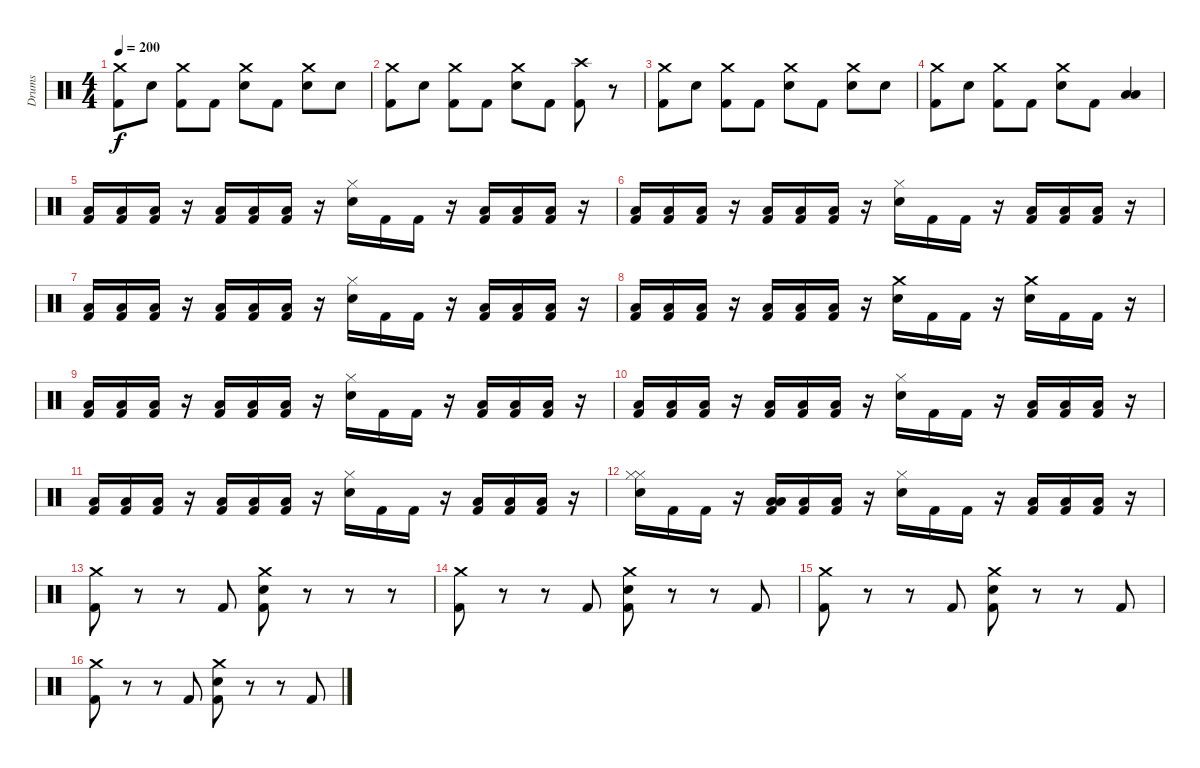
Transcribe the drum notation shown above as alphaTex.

\track ("Drums" "Drums") {instrument percussion}
\staff {score}
\articulation defaults
\ts (4 4)
\tempo 200
\clef neutral
\ks c
("Crash medium (hit)" "Kick (hit) 2").8{dy f} "Electric Snare (hit)".8 ("Crash medium (hit)" "Kick (hit) 2").8 "Kick (hit) 2".8 ("Crash medium (hit)" "Electric Snare (hit)").8 "Kick (hit) 2".8 ("Crash medium (hit)" "Electric Snare (hit)").8 "Electric Snare (hit)".8 |
("Crash medium (hit)" "Kick (hit) 2").8 "Electric Snare (hit)".8 ("Crash medium (hit)" "Kick (hit) 2").8 "Kick (hit) 2".8 ("Crash medium (hit)" "Electric Snare (hit)").8 "Kick (hit) 2".8 ("Crash high (hit)" "Kick (hit) 2").8 r.8 |
("Crash medium (hit)" "Kick (hit) 2").8 "Electric Snare (hit)".8 ("Crash medium (hit)" "Kick (hit) 2").8 "Kick (hit) 2".8 ("Crash medium (hit)" "Electric Snare (hit)").8 "Kick (hit) 2".8 ("Crash medium (hit)" "Electric Snare (hit)").8 "Electric Snare (hit)".8 |
("Crash medium (hit)" "Kick (hit) 2").8 "Electric Snare (hit)".8 ("Crash medium (hit)" "Kick (hit) 2").8 "Kick (hit) 2".8 ("Crash medium (hit)" "Electric Snare (hit)").8 "Kick (hit) 2".8 ("Low Floor Tom (hit)" "Low Tom (hit)").4 |
("Low Tom (hit)" "Kick (hit) 2").16 ("Low Tom (hit)" "Kick (hit) 2").16 ("Low Tom (hit)" "Kick (hit) 2").16 r.16 ("Low Floor Tom (hit)" "Kick (hit) 2").16 ("Low Floor Tom (hit)" "Kick (hit) 2").16 ("Low Floor Tom (hit)" "Kick (hit) 2").16 r.16 ("Hi-Hat (closed)" "Electric Snare (hit)").16 "Kick (hit) 2".16 "Kick (hit) 2".16 r.16 ("Low Floor Tom (hit)" "Kick (hit) 2").16 ("Low Floor Tom (hit)" "Kick (hit) 2").16 ("Low Floor Tom (hit)" "Kick (hit) 2").16 r.16 |
("Low Tom (hit)" "Kick (hit) 2").16 ("Low Tom (hit)" "Kick (hit) 2").16 ("Low Tom (hit)" "Kick (hit) 2").16 r.16 ("Low Floor Tom (hit)" "Kick (hit) 2").16 ("Low Floor Tom (hit)" "Kick (hit) 2").16 ("Low Floor Tom (hit)" "Kick (hit) 2").16 r.16 ("Hi-Hat (closed)" "Electric Snare (hit)").16 "Kick (hit) 2".16 "Kick (hit) 2".16 r.16 ("Low Floor Tom (hit)" "Kick (hit) 2").16 ("Low Floor Tom (hit)" "Kick (hit) 2").16 ("Low Floor Tom (hit)" "Kick (hit) 2").16 r.16 |
("Low Tom (hit)" "Kick (hit) 2").16 ("Low Tom (hit)" "Kick (hit) 2").16 ("Low Tom (hit)" "Kick (hit) 2").16 r.16 ("Low Floor Tom (hit)" "Kick (hit) 2").16 ("Low Floor Tom (hit)" "Kick (hit) 2").16 ("Low Floor Tom (hit)" "Kick (hit) 2").16 r.16 ("Hi-Hat (closed)" "Electric Snare (hit)").16 "Kick (hit) 2".16 "Kick (hit) 2".16 r.16 ("Low Floor Tom (hit)" "Kick (hit) 2").16 ("Low Floor Tom (hit)" "Kick (hit) 2").16 ("Low Floor Tom (hit)" "Kick (hit) 2").16 r.16 |
("Low Tom (hit)" "Kick (hit) 2").16 ("Low Tom (hit)" "Kick (hit) 2").16 ("Low Tom (hit)" "Kick (hit) 2").16 r.16 ("Low Floor Tom (hit)" "Kick (hit) 2").16 ("Low Floor Tom (hit)" "Kick (hit) 2").16 ("Low Floor Tom (hit)" "Kick (hit) 2").16 r.16 ("Crash medium (hit)" "Electric Snare (hit)").16 "Kick (hit) 2".16 "Kick (hit) 2".16 r.16 ("Crash medium (hit)" "Electric Snare (hit)").16 "Kick (hit) 2".16 "Kick (hit) 2".16 r.16 |
("Low Tom (hit)" "Kick (hit) 2").16 ("Low Tom (hit)" "Kick (hit) 2").16 ("Low Tom (hit)" "Kick (hit) 2").16 r.16 ("Low Floor Tom (hit)" "Kick (hit) 2").16 ("Low Floor Tom (hit)" "Kick (hit) 2").16 ("Low Floor Tom (hit)" "Kick (hit) 2").16 r.16 ("Hi-Hat (closed)" "Electric Snare (hit)").16 "Kick (hit) 2".16 "Kick (hit) 2".16 r.16 ("Low Floor Tom (hit)" "Kick (hit) 2").16 ("Low Floor Tom (hit)" "Kick (hit) 2").16 ("Low Floor Tom (hit)" "Kick (hit) 2").16 r.16 |
("Low Tom (hit)" "Kick (hit) 2").16 ("Low Tom (hit)" "Kick (hit) 2").16 ("Low Tom (hit)" "Kick (hit) 2").16 r.16 ("Low Floor Tom (hit)" "Kick (hit) 2").16 ("Low Floor Tom (hit)" "Kick (hit) 2").16 ("Low Floor Tom (hit)" "Kick (hit) 2").16 r.16 ("Hi-Hat (closed)" "Electric Snare (hit)").16 "Kick (hit) 2".16 "Kick (hit) 2".16 r.16 ("Low Floor Tom (hit)" "Kick (hit) 2").16 ("Low Floor Tom (hit)" "Kick (hit) 2").16 ("Low Floor Tom (hit)" "Kick (hit) 2").16 r.16 |
("Low Tom (hit)" "Kick (hit) 2").16 ("Low Tom (hit)" "Kick (hit) 2").16 ("Low Tom (hit)" "Kick (hit) 2").16 r.16 ("Low Floor Tom (hit)" "Kick (hit) 2").16 ("Low Floor Tom (hit)" "Kick (hit) 2").16 ("Low Floor Tom (hit)" "Kick (hit) 2").16 r.16 ("Hi-Hat (closed)" "Electric Snare (hit)").16 "Kick (hit) 2".16 "Kick (hit) 2".16 r.16 ("Low Floor Tom (hit)" "Kick (hit) 2").16 ("Low Floor Tom (hit)" "Kick (hit) 2").16 ("Low Floor Tom (hit)" "Kick (hit) 2").16 r.16 |
("Hi-Hat (closed)" "Hi-Hat (closed)" "Electric Snare (hit)").16 "Kick (hit) 2".16 "Kick (hit) 2".16 r.16 ("Low Floor Tom (hit)" "Low Floor Tom (hit)" "Kick (hit) 2").16 ("Low Floor Tom (hit)" "Kick (hit) 2").16 ("Low Floor Tom (hit)" "Kick (hit) 2").16 r.16 ("Hi-Hat (closed)" "Electric Snare (hit)").16 "Kick (hit) 2".16 "Kick (hit) 2".16 r.16 ("Low Floor Tom (hit)" "Kick (hit) 2").16 ("Low Floor Tom (hit)" "Kick (hit) 2").16 ("Low Floor Tom (hit)" "Kick (hit) 2").16 r.16 |
("Crash medium (hit)" "Kick (hit) 2").8 r.8 r.8 "Kick (hit) 2".8 ("Crash medium (hit)" "Electric Snare (hit)" "Kick (hit) 2").8 r.8 r.8 r.8 |
("Crash medium (hit)" "Kick (hit) 2").8 r.8 r.8 "Kick (hit) 2".8 ("Crash medium (hit)" "Electric Snare (hit)" "Kick (hit) 2").8 r.8 r.8 "Kick (hit) 2".8 |
("Crash medium (hit)" "Kick (hit) 2").8 r.8 r.8 "Kick (hit) 2".8 ("Crash medium (hit)" "Electric Snare (hit)" "Kick (hit) 2").8 r.8 r.8 "Kick (hit) 2".8 |
("Crash medium (hit)" "Kick (hit) 2").8 r.8 r.8 "Kick (hit) 2".8 ("Crash medium (hit)" "Electric Snare (hit)" "Kick (hit) 2").8 r.8 r.8 "Kick (hit) 2".8
